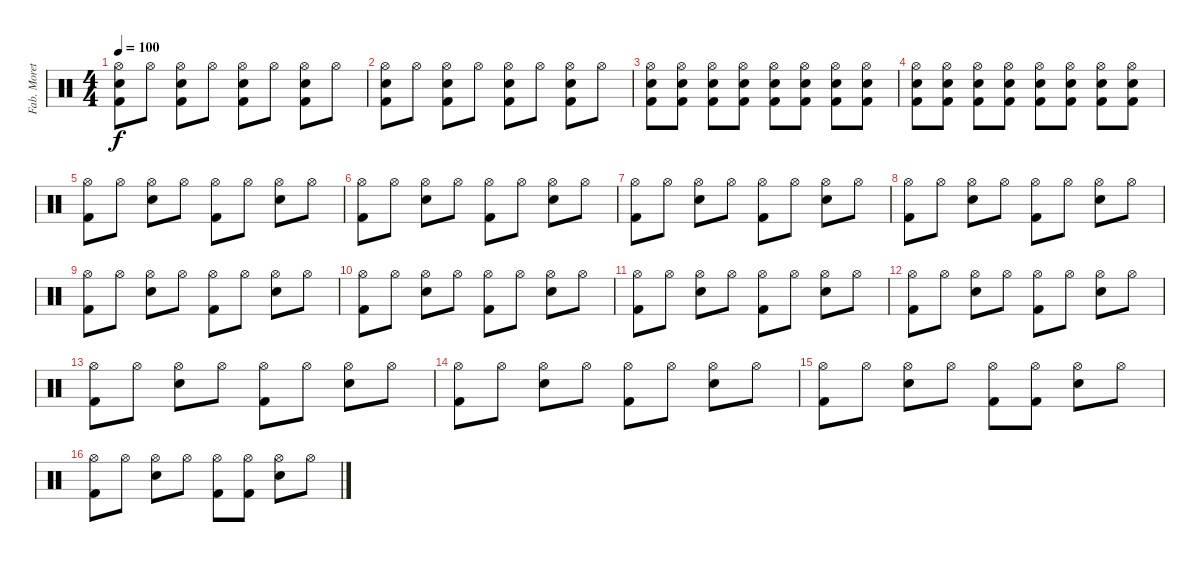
\track ("Fab. Moretti" "Fab. Moret") {instrument percussion}
\staff {score}
\articulation defaults
\ts (4 4)
\tempo 100
\clef neutral
\ks c
("Hi-Hat (open)" "Electric Snare (hit)" "Kick (hit) 2").8{dy f} "Hi-Hat (open)".8 ("Hi-Hat (open)" "Electric Snare (hit)" "Kick (hit) 2").8 "Hi-Hat (open)".8 ("Hi-Hat (open)" "Electric Snare (hit)" "Kick (hit) 2").8 "Hi-Hat (open)".8 ("Hi-Hat (open)" "Electric Snare (hit)" "Kick (hit) 2").8 "Hi-Hat (open)".8 |
("Hi-Hat (open)" "Electric Snare (hit)" "Kick (hit) 2").8 "Hi-Hat (open)".8 ("Hi-Hat (open)" "Electric Snare (hit)" "Kick (hit) 2").8 "Hi-Hat (open)".8 ("Hi-Hat (open)" "Electric Snare (hit)" "Kick (hit) 2").8 "Hi-Hat (open)".8 ("Hi-Hat (open)" "Electric Snare (hit)" "Kick (hit) 2").8 "Hi-Hat (open)".8 |
("Hi-Hat (open)" "Electric Snare (hit)" "Kick (hit) 2").8 ("Hi-Hat (open)" "Electric Snare (hit)" "Kick (hit) 2").8 ("Hi-Hat (open)" "Electric Snare (hit)" "Kick (hit) 2").8 ("Hi-Hat (open)" "Electric Snare (hit)" "Kick (hit) 2").8 ("Hi-Hat (open)" "Electric Snare (hit)" "Kick (hit) 2").8 ("Hi-Hat (open)" "Electric Snare (hit)" "Kick (hit) 2").8 ("Hi-Hat (open)" "Electric Snare (hit)" "Kick (hit) 2").8 ("Hi-Hat (open)" "Electric Snare (hit)" "Kick (hit) 2").8 |
("Hi-Hat (open)" "Electric Snare (hit)" "Kick (hit) 2").8 ("Hi-Hat (open)" "Electric Snare (hit)" "Kick (hit) 2").8 ("Hi-Hat (open)" "Electric Snare (hit)" "Kick (hit) 2").8 ("Hi-Hat (open)" "Electric Snare (hit)" "Kick (hit) 2").8 ("Hi-Hat (open)" "Electric Snare (hit)" "Kick (hit) 2").8 ("Hi-Hat (open)" "Electric Snare (hit)" "Kick (hit) 2").8 ("Hi-Hat (open)" "Electric Snare (hit)" "Kick (hit) 2").8 ("Hi-Hat (open)" "Electric Snare (hit)" "Kick (hit) 2").8 |
("Hi-Hat (open)" "Kick (hit) 2").8 "Hi-Hat (open)".8 ("Hi-Hat (open)" "Electric Snare (hit)").8 "Hi-Hat (open)".8 ("Hi-Hat (open)" "Kick (hit) 2").8 "Hi-Hat (open)".8 ("Hi-Hat (open)" "Electric Snare (hit)").8 "Hi-Hat (open)".8 |
("Hi-Hat (open)" "Kick (hit) 2").8 "Hi-Hat (open)".8 ("Hi-Hat (open)" "Electric Snare (hit)").8 "Hi-Hat (open)".8 ("Hi-Hat (open)" "Kick (hit) 2").8 "Hi-Hat (open)".8 ("Hi-Hat (open)" "Electric Snare (hit)").8 "Hi-Hat (open)".8 |
("Hi-Hat (open)" "Kick (hit) 2").8 "Hi-Hat (open)".8 ("Hi-Hat (open)" "Electric Snare (hit)").8 "Hi-Hat (open)".8 ("Hi-Hat (open)" "Kick (hit) 2").8 "Hi-Hat (open)".8 ("Hi-Hat (open)" "Electric Snare (hit)").8 "Hi-Hat (open)".8 |
("Hi-Hat (open)" "Kick (hit) 2").8 "Hi-Hat (open)".8 ("Hi-Hat (open)" "Electric Snare (hit)").8 "Hi-Hat (open)".8 ("Hi-Hat (open)" "Kick (hit) 2").8 "Hi-Hat (open)".8 ("Hi-Hat (open)" "Electric Snare (hit)").8 "Hi-Hat (open)".8 |
("Hi-Hat (open)" "Kick (hit) 2").8 "Hi-Hat (open)".8 ("Hi-Hat (open)" "Electric Snare (hit)").8 "Hi-Hat (open)".8 ("Hi-Hat (open)" "Kick (hit) 2").8 "Hi-Hat (open)".8 ("Hi-Hat (open)" "Electric Snare (hit)").8 "Hi-Hat (open)".8 |
("Hi-Hat (open)" "Kick (hit) 2").8 "Hi-Hat (open)".8 ("Hi-Hat (open)" "Electric Snare (hit)").8 "Hi-Hat (open)".8 ("Hi-Hat (open)" "Kick (hit) 2").8 "Hi-Hat (open)".8 ("Hi-Hat (open)" "Electric Snare (hit)").8 "Hi-Hat (open)".8 |
("Hi-Hat (open)" "Kick (hit) 2").8 "Hi-Hat (open)".8 ("Hi-Hat (open)" "Electric Snare (hit)").8 "Hi-Hat (open)".8 ("Hi-Hat (open)" "Kick (hit) 2").8 "Hi-Hat (open)".8 ("Hi-Hat (open)" "Electric Snare (hit)").8 "Hi-Hat (open)".8 |
("Hi-Hat (open)" "Kick (hit) 2").8 "Hi-Hat (open)".8 ("Hi-Hat (open)" "Electric Snare (hit)").8 "Hi-Hat (open)".8 ("Hi-Hat (open)" "Kick (hit) 2").8 "Hi-Hat (open)".8 ("Hi-Hat (open)" "Electric Snare (hit)").8 "Hi-Hat (open)".8 |
("Hi-Hat (open)" "Kick (hit) 2").8 "Hi-Hat (open)".8 ("Hi-Hat (open)" "Electric Snare (hit)").8 "Hi-Hat (open)".8 ("Hi-Hat (open)" "Kick (hit) 2").8 "Hi-Hat (open)".8 ("Hi-Hat (open)" "Electric Snare (hit)").8 "Hi-Hat (open)".8 |
("Hi-Hat (open)" "Kick (hit) 2").8 "Hi-Hat (open)".8 ("Hi-Hat (open)" "Electric Snare (hit)").8 "Hi-Hat (open)".8 ("Hi-Hat (open)" "Kick (hit) 2").8 "Hi-Hat (open)".8 ("Hi-Hat (open)" "Electric Snare (hit)").8 "Hi-Hat (open)".8 |
("Hi-Hat (open)" "Kick (hit) 2").8 "Hi-Hat (open)".8 ("Hi-Hat (open)" "Electric Snare (hit)").8 "Hi-Hat (open)".8 ("Hi-Hat (open)" "Kick (hit) 2").8 ("Hi-Hat (open)" "Kick (hit) 2").8 ("Hi-Hat (open)" "Electric Snare (hit)").8 "Hi-Hat (open)".8 |
("Hi-Hat (open)" "Kick (hit) 2").8 "Hi-Hat (open)".8 ("Hi-Hat (open)" "Electric Snare (hit)").8 "Hi-Hat (open)".8 ("Hi-Hat (open)" "Kick (hit) 2").8 ("Hi-Hat (open)" "Kick (hit) 2").8 ("Hi-Hat (open)" "Electric Snare (hit)").8 "Hi-Hat (open)".8
